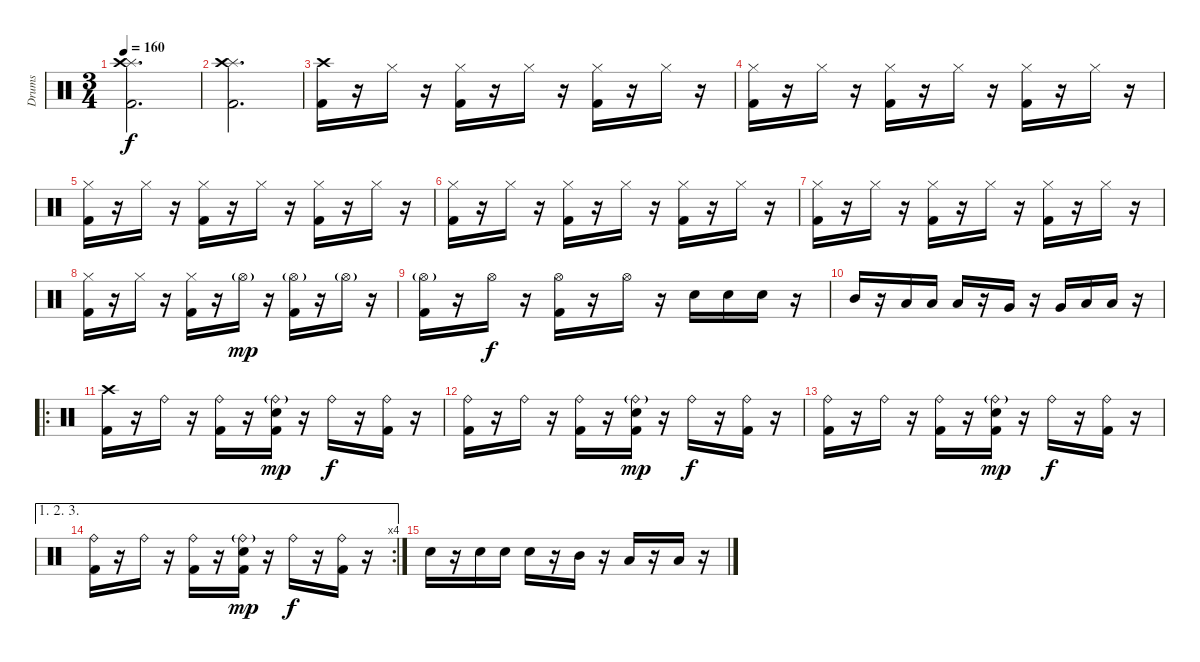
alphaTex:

\track ("Drums" "Drums") {instrument percussion}
\staff {score}
\articulation defaults
\ts (3 4)
\tempo 160
\clef neutral
\ks c
("Splash (hit)" "Crash high (hit)" "Kick (hit) 2").2{d dy f} |
("Splash (hit)" "Crash high (hit)" "Kick (hit) 2").2{d} |
("Crash high (hit)" "Kick (hit) 2").16 r.16 "Hi-Hat (closed)".16 r.16 ("Hi-Hat (closed)" "Kick (hit) 2").16 r.16 "Hi-Hat (closed)".16 r.16 ("Hi-Hat (closed)" "Kick (hit) 2").16 r.16 "Hi-Hat (closed)".16 r.16 |
("Hi-Hat (closed)" "Kick (hit) 2").16 r.16 "Hi-Hat (closed)".16 r.16 ("Hi-Hat (closed)" "Kick (hit) 2").16 r.16 "Hi-Hat (closed)".16 r.16 ("Hi-Hat (closed)" "Kick (hit) 2").16 r.16 "Hi-Hat (closed)".16 r.16 |
("Hi-Hat (closed)" "Kick (hit) 2").16 r.16 "Hi-Hat (closed)".16 r.16 ("Hi-Hat (closed)" "Kick (hit) 2").16 r.16 "Hi-Hat (closed)".16 r.16 ("Hi-Hat (closed)" "Kick (hit) 2").16 r.16 "Hi-Hat (closed)".16 r.16 |
("Hi-Hat (closed)" "Kick (hit) 2").16 r.16 "Hi-Hat (closed)".16 r.16 ("Hi-Hat (closed)" "Kick (hit) 2").16 r.16 "Hi-Hat (closed)".16 r.16 ("Hi-Hat (closed)" "Kick (hit) 2").16 r.16 "Hi-Hat (closed)".16 r.16 |
("Hi-Hat (closed)" "Kick (hit) 2").16 r.16 "Hi-Hat (closed)".16 r.16 ("Hi-Hat (closed)" "Kick (hit) 2").16 r.16 "Hi-Hat (closed)".16 r.16 ("Hi-Hat (closed)" "Kick (hit) 2").16 r.16 "Hi-Hat (closed)".16 r.16 |
("Hi-Hat (closed)" "Kick (hit) 2").16 r.16 "Hi-Hat (closed)".16 r.16 ("Hi-Hat (closed)" "Kick (hit) 2").16 r.16 "Hi-Hat (open)"{g}.16{dy mp} r.16 ("Hi-Hat (open)"{g} "Kick (hit) 2").16 r.16 "Hi-Hat (open)"{g}.16 r.16 |
("Hi-Hat (open)"{g} "Kick (hit) 2").16 r.16 "Hi-Hat (open)".16{dy f} r.16 ("Hi-Hat (open)" "Kick (hit) 2").16 r.16 "Hi-Hat (open)".16 r.16 "Snare (hit) 2".16 "Snare (hit) 2".16 "Snare (hit) 2".16 r.16 |
"Mid Tom (hit)".16 r.16 "Low Tom (hit)".16 "Low Tom (hit)".16 "Low Tom (hit)".16 r.16 "Very Low Tom (hit)".16 r.16 "Very Low Tom (hit)".16 "Low Floor Tom (hit)".16 "Low Floor Tom (hit)".16 r.16 |
\ro
("Crash high (hit)" "Kick (hit) 2").16 r.16 "Ride (bell)".16 r.16 ("Ride (bell)" "Kick (hit) 2").16 r.16 ("Ride (bell)"{g} "Snare (hit) 2" "Kick (hit) 2").16{dy mp} r.16 "Ride (bell)".16{dy f} r.16 ("Ride (bell)" "Kick (hit) 2").16 r.16 |
("Ride (bell)" "Kick (hit) 2").16 r.16 "Ride (bell)".16 r.16 ("Ride (bell)" "Kick (hit) 2").16 r.16 ("Ride (bell)"{g} "Snare (hit) 2" "Kick (hit) 2").16{dy mp} r.16 "Ride (bell)".16{dy f} r.16 ("Ride (bell)" "Kick (hit) 2").16 r.16 |
("Ride (bell)" "Kick (hit) 2").16 r.16 "Ride (bell)".16 r.16 ("Ride (bell)" "Kick (hit) 2").16 r.16 ("Ride (bell)"{g} "Snare (hit) 2" "Kick (hit) 2").16{dy mp} r.16 "Ride (bell)".16{dy f} r.16 ("Ride (bell)" "Kick (hit) 2").16 r.16 |
\ae (1 2 3)
\rc 4
("Ride (bell)" "Kick (hit) 2").16 r.16 "Ride (bell)".16 r.16 ("Ride (bell)" "Kick (hit) 2").16 r.16 ("Ride (bell)"{g} "Snare (hit) 2" "Kick (hit) 2").16{dy mp} r.16 "Ride (bell)".16{dy f} r.16 ("Ride (bell)" "Kick (hit) 2").16 r.16 |
"Snare (hit) 2".16 r.16 "Snare (hit) 2".16 "Snare (hit) 2".16 "Snare (hit) 2".16 r.16 "Mid Tom (hit)".16 r.16 "Low Tom (hit)".16 r.16 "Low Tom (hit)".16 r.16
